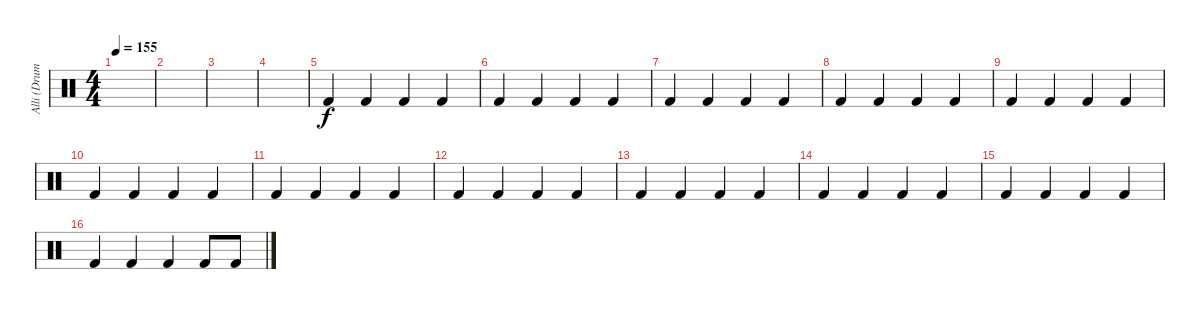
\track ("Alli (Drums)" "Alli (Drum") {instrument percussion}
\staff {score}
\articulation defaults
\ts (4 4)
\tempo 155
\clef neutral
\ks c
|
|
|
|
"Kick (hit) 2".4 "Kick (hit) 2".4 "Kick (hit) 2".4 "Kick (hit) 2".4 |
"Kick (hit) 2".4 "Kick (hit) 2".4 "Kick (hit) 2".4 "Kick (hit) 2".4 |
"Kick (hit) 2".4 "Kick (hit) 2".4 "Kick (hit) 2".4 "Kick (hit) 2".4 |
"Kick (hit) 2".4 "Kick (hit) 2".4 "Kick (hit) 2".4 "Kick (hit) 2".4 |
"Kick (hit) 2".4 "Kick (hit) 2".4 "Kick (hit) 2".4 "Kick (hit) 2".4 |
"Kick (hit) 2".4 "Kick (hit) 2".4 "Kick (hit) 2".4 "Kick (hit) 2".4 |
"Kick (hit) 2".4 "Kick (hit) 2".4 "Kick (hit) 2".4 "Kick (hit) 2".4 |
"Kick (hit) 2".4 "Kick (hit) 2".4 "Kick (hit) 2".4 "Kick (hit) 2".4 |
"Kick (hit) 2".4 "Kick (hit) 2".4 "Kick (hit) 2".4 "Kick (hit) 2".4 |
"Kick (hit) 2".4 "Kick (hit) 2".4 "Kick (hit) 2".4 "Kick (hit) 2".4 |
"Kick (hit) 2".4 "Kick (hit) 2".4 "Kick (hit) 2".4 "Kick (hit) 2".4 |
"Kick (hit) 2".4 "Kick (hit) 2".4 "Kick (hit) 2".4 "Kick (hit) 2".8 "Kick (hit) 2".8
